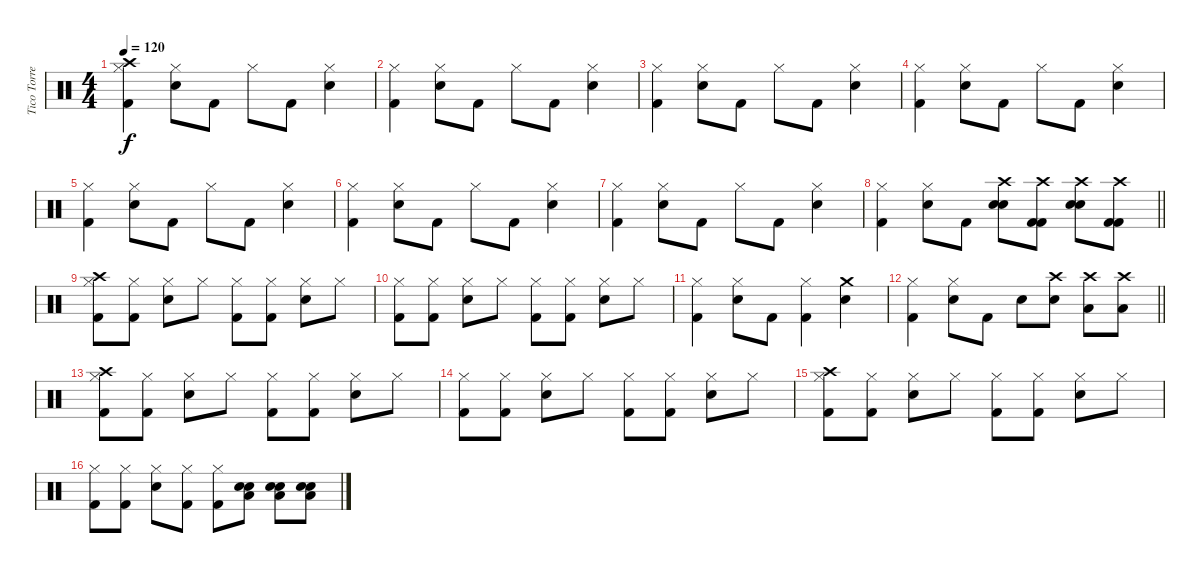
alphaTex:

\track ("Tico Torres (Drums)" "Tico Torre") {instrument percussion}
\staff {score}
\articulation defaults
\ts (4 4)
\tempo 120
\clef neutral
\ks c
("Crash high (hit)" "Hi-Hat (closed)" "Kick (hit) 2").4{dy f} ("Hi-Hat (closed)" "Electric Snare (hit)").8 "Kick (hit) 2".8 "Hi-Hat (closed)".8 "Kick (hit) 2".8 ("Hi-Hat (closed)" "Electric Snare (hit)").4 |
("Hi-Hat (closed)" "Kick (hit) 2").4 ("Hi-Hat (closed)" "Electric Snare (hit)").8 "Kick (hit) 2".8 "Hi-Hat (closed)".8 "Kick (hit) 2".8 ("Hi-Hat (closed)" "Electric Snare (hit)").4 |
("Hi-Hat (closed)" "Kick (hit) 2").4 ("Hi-Hat (closed)" "Electric Snare (hit)").8 "Kick (hit) 2".8 "Hi-Hat (closed)".8 "Kick (hit) 2".8 ("Hi-Hat (closed)" "Electric Snare (hit)").4 |
("Hi-Hat (closed)" "Kick (hit) 2").4 ("Hi-Hat (closed)" "Electric Snare (hit)").8 "Kick (hit) 2".8 "Hi-Hat (closed)".8 "Kick (hit) 2".8 ("Hi-Hat (closed)" "Electric Snare (hit)").4 |
("Hi-Hat (closed)" "Kick (hit) 2").4 ("Hi-Hat (closed)" "Electric Snare (hit)").8 "Kick (hit) 2".8 "Hi-Hat (closed)".8 "Kick (hit) 2".8 ("Hi-Hat (closed)" "Electric Snare (hit)").4 |
("Hi-Hat (closed)" "Kick (hit) 2").4 ("Hi-Hat (closed)" "Electric Snare (hit)").8 "Kick (hit) 2".8 "Hi-Hat (closed)".8 "Kick (hit) 2".8 ("Hi-Hat (closed)" "Electric Snare (hit)").4 |
("Hi-Hat (closed)" "Kick (hit) 2").4 ("Hi-Hat (closed)" "Electric Snare (hit)").8 "Kick (hit) 2".8 "Hi-Hat (closed)".8 "Kick (hit) 2".8 ("Hi-Hat (closed)" "Electric Snare (hit)").4 |
\barLineRight lightlight
("Hi-Hat (closed)" "Kick (hit) 2").4 ("Hi-Hat (closed)" "Electric Snare (hit)").8 "Kick (hit) 2".8 ("Crash high (hit)" "Electric Snare (hit)" "Electric Snare (hit)").8 ("Crash high (hit)" "Kick (hit) 2" "Kick (hit) 2").8 ("Crash high (hit)" "Electric Snare (hit)" "Electric Snare (hit)").8 ("Crash high (hit)" "Kick (hit) 2" "Kick (hit) 2").8 |
("Crash high (hit)" "Hi-Hat (closed)" "Kick (hit) 2").8 ("Hi-Hat (closed)" "Kick (hit) 2").8 ("Hi-Hat (closed)" "Electric Snare (hit)").8 "Hi-Hat (closed)".8 ("Hi-Hat (closed)" "Kick (hit) 2").8 ("Hi-Hat (closed)" "Kick (hit) 2").8 ("Hi-Hat (closed)" "Electric Snare (hit)").8 "Hi-Hat (closed)".8 |
("Hi-Hat (closed)" "Kick (hit) 2").8 ("Hi-Hat (closed)" "Kick (hit) 2").8 ("Hi-Hat (closed)" "Electric Snare (hit)").8 "Hi-Hat (closed)".8 ("Hi-Hat (closed)" "Kick (hit) 2").8 ("Hi-Hat (closed)" "Kick (hit) 2").8 ("Hi-Hat (closed)" "Electric Snare (hit)").8 "Hi-Hat (closed)".8 |
("Hi-Hat (closed)" "Kick (hit) 2").4 ("Hi-Hat (closed)" "Electric Snare (hit)").8 "Kick (hit) 2".8 ("Hi-Hat (closed)" "Kick (hit) 2").4 ("Crash medium (hit)" "Electric Snare (hit)").4 |
\barLineRight lightlight
("Hi-Hat (closed)" "Kick (hit) 2").4 ("Hi-Hat (closed)" "Electric Snare (hit)").8 "Kick (hit) 2".8 "Electric Snare (hit)".8 ("Crash high (hit)" "Electric Snare (hit)").8 ("Crash high (hit)" "Low Tom (hit)").8 ("Crash high (hit)" "Low Tom (hit)").8 |
("Crash high (hit)" "Hi-Hat (closed)" "Kick (hit) 2").8 ("Hi-Hat (closed)" "Kick (hit) 2").8 ("Hi-Hat (closed)" "Electric Snare (hit)").8 "Hi-Hat (closed)".8 ("Hi-Hat (closed)" "Kick (hit) 2").8 ("Hi-Hat (closed)" "Kick (hit) 2").8 ("Hi-Hat (closed)" "Electric Snare (hit)").8 "Hi-Hat (closed)".8 |
("Hi-Hat (closed)" "Kick (hit) 2").8 ("Hi-Hat (closed)" "Kick (hit) 2").8 ("Hi-Hat (closed)" "Electric Snare (hit)").8 "Hi-Hat (closed)".8 ("Hi-Hat (closed)" "Kick (hit) 2").8 ("Hi-Hat (closed)" "Kick (hit) 2").8 ("Hi-Hat (closed)" "Electric Snare (hit)").8 "Hi-Hat (closed)".8 |
("Crash high (hit)" "Hi-Hat (closed)" "Kick (hit) 2").8 ("Hi-Hat (closed)" "Kick (hit) 2").8 ("Hi-Hat (closed)" "Electric Snare (hit)").8 "Hi-Hat (closed)".8 ("Hi-Hat (closed)" "Kick (hit) 2").8 ("Hi-Hat (closed)" "Kick (hit) 2").8 ("Hi-Hat (closed)" "Electric Snare (hit)").8 "Hi-Hat (closed)".8 |
("Hi-Hat (closed)" "Kick (hit) 2").8 ("Hi-Hat (closed)" "Kick (hit) 2").8 ("Hi-Hat (closed)" "Electric Snare (hit)").8 ("Hi-Hat (closed)" "Kick (hit) 2").8 ("Hi-Hat (closed)" "Kick (hit) 2").8{bd 60} ("Low Tom (hit)" "Electric Snare (hit)" "Electric Snare (hit)").8{bd 120} ("Low Tom (hit)" "Electric Snare (hit)" "Electric Snare (hit)").8{bd 60} ("Low Tom (hit)" "Electric Snare (hit)" "Electric Snare (hit)").8{bd 120}
